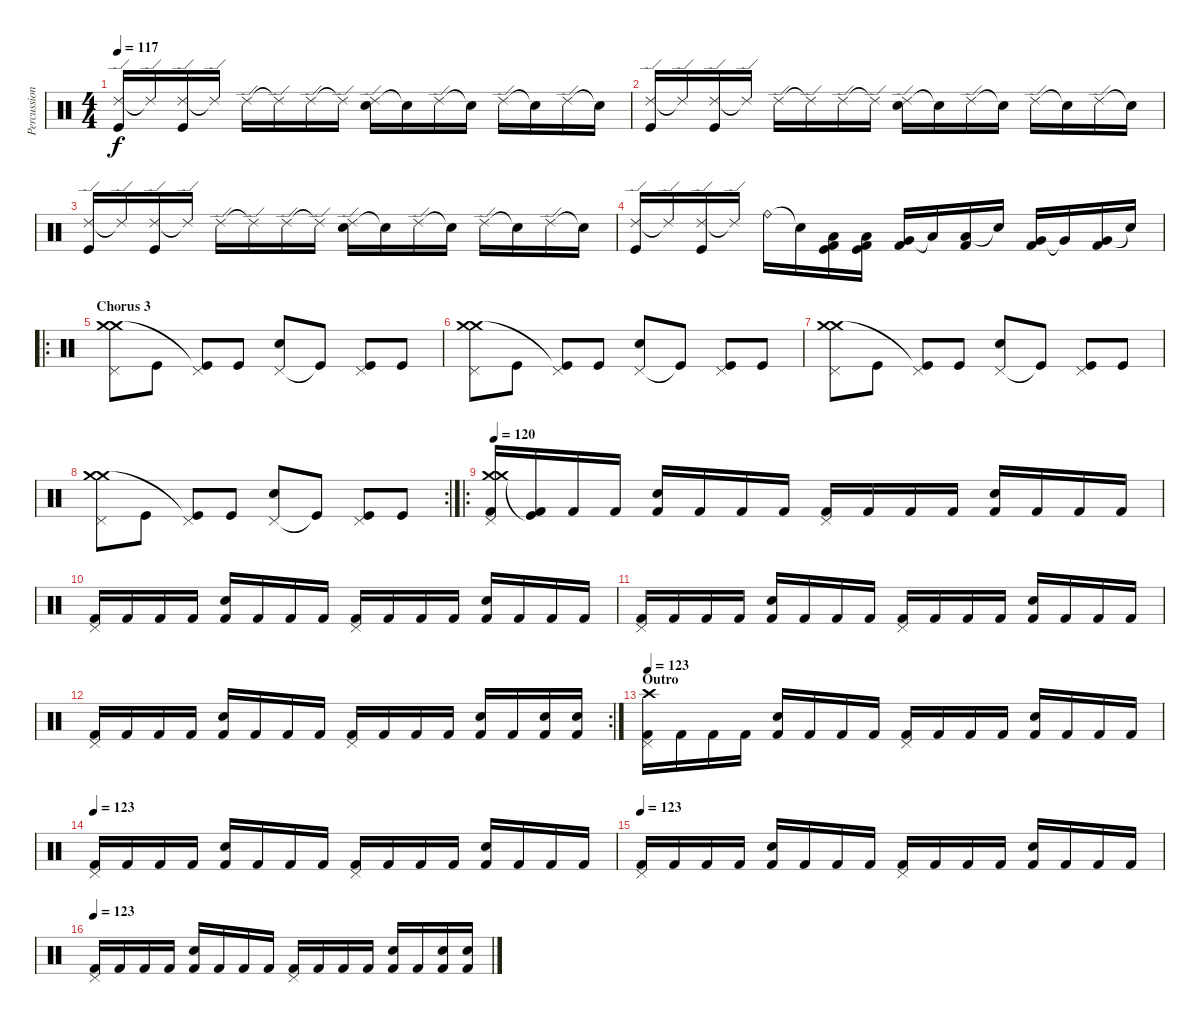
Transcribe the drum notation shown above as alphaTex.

\track ("Percussions" "Percussion") {instrument percussion}
\staff {score}
\articulation defaults
\ts (4 4)
\tempo 117
\clef neutral
\ks c
("Ride (edge) 2" "Kick (hit)").16{dy f} "Ride (edge) 2"{t}.16 ("Ride (edge) 2" "Kick (hit)").16 "Ride (edge) 2"{t}.16 "Ride (edge) 2".16 "Ride (edge) 2"{t}.16 "Ride (edge) 2".16 "Ride (edge) 2"{t}.16 ("Ride (edge) 2" "Electric Snare (hit)").16 "Snare (hit)"{t}.16 "Ride (edge) 2".16 "Snare (hit)"{t}.16 "Ride (edge) 2".16 "Snare (hit)"{t}.16 "Ride (edge) 2".16 "Snare (hit)"{t}.16 |
("Ride (edge) 2" "Kick (hit)").16 "Ride (edge) 2"{t}.16 ("Ride (edge) 2" "Kick (hit)").16 "Ride (edge) 2"{t}.16 "Ride (edge) 2".16 "Ride (edge) 2"{t}.16 "Ride (edge) 2".16 "Ride (edge) 2"{t}.16 ("Ride (edge) 2" "Electric Snare (hit)").16 "Snare (hit)"{t}.16 "Ride (edge) 2".16 "Snare (hit)"{t}.16 "Ride (edge) 2".16 "Snare (hit)"{t}.16 "Ride (edge) 2".16 "Snare (hit)"{t}.16 |
("Ride (edge) 2" "Kick (hit)").16 "Ride (edge) 2"{t}.16 ("Ride (edge) 2" "Kick (hit)").16 "Ride (edge) 2"{t}.16 "Ride (edge) 2".16 "Ride (edge) 2"{t}.16 "Ride (edge) 2".16 "Ride (edge) 2"{t}.16 ("Ride (edge) 2" "Electric Snare (hit)").16 "Snare (hit)"{t}.16 "Ride (edge) 2".16 "Snare (hit)"{t}.16 "Ride (edge) 2".16 "Snare (hit)"{t}.16 "Ride (edge) 2".16 "Snare (hit)"{t}.16 |
("Ride (edge) 2" "Kick (hit)").16 "Ride (edge) 2"{t}.16 ("Ride (edge) 2" "Kick (hit)").16 "Ride (edge) 2"{t}.16 "Ride (bell)".16 "Snare (hit)"{t}.16 ("Low Floor Tom (hit)" "Kick (hit) 2" "Kick (hit)").16 ("Low Floor Tom (hit)" "Kick (hit) 2" "Kick (hit)").16 ("Very Low Tom (hit)" "Kick (hit) 2").16 "Low Tom (hit)"{t}.16 ("Low Tom (hit)" "Kick (hit) 2").16 "Snare (hit)"{t}.16 ("Very Low Tom (hit)" "Kick (hit) 2").16 "Very Low Tom (hit)"{t}.16 ("Very Low Tom (hit)" "Kick (hit) 2").16 "Snare (hit)"{t}.16 |
\ro
\section ("" "Chorus 3")
("Crash medium (hit)" "Crash medium (hit)" "Pedal Hi-Hat (hit)").8 "Kick (hit)".8 ("Pedal Hi-Hat (hit)" "Kick (hit)"{t}).8 "Kick (hit)".8 ("Pedal Hi-Hat (hit)" "Electric Snare (hit)").8 "Kick (hit)"{t}.8 ("Pedal Hi-Hat (hit)" "Kick (hit)").8 "Kick (hit)".8 |
("Crash medium (hit)" "Crash medium (hit)" "Pedal Hi-Hat (hit)").8 "Kick (hit)".8 ("Pedal Hi-Hat (hit)" "Kick (hit)"{t}).8 "Kick (hit)".8 ("Pedal Hi-Hat (hit)" "Electric Snare (hit)").8 "Kick (hit)"{t}.8 ("Pedal Hi-Hat (hit)" "Kick (hit)").8 "Kick (hit)".8 |
("Crash medium (hit)" "Crash medium (hit)" "Pedal Hi-Hat (hit)").8 "Kick (hit)".8 ("Pedal Hi-Hat (hit)" "Kick (hit)"{t}).8 "Kick (hit)".8 ("Pedal Hi-Hat (hit)" "Electric Snare (hit)").8 "Kick (hit)"{t}.8 ("Pedal Hi-Hat (hit)" "Kick (hit)").8 "Kick (hit)".8 |
\rc 2
("Crash medium (hit)" "Crash medium (hit)" "Pedal Hi-Hat (hit)").8 "Kick (hit)".8 ("Pedal Hi-Hat (hit)" "Kick (hit)"{t}).8 "Kick (hit)".8 ("Pedal Hi-Hat (hit)" "Electric Snare (hit)").8 "Kick (hit)"{t}.8 ("Pedal Hi-Hat (hit)" "Kick (hit)").8 "Kick (hit)".8 |
\ro
\tempo 120
("Crash medium (hit)" "Crash medium (hit)" "Pedal Hi-Hat (hit)" "Kick (hit) 2").16 ("Kick (hit)"{t} "Kick (hit) 2").16 "Kick (hit) 2".16 "Kick (hit) 2".16 ("Electric Snare (hit)" "Kick (hit) 2").16 "Kick (hit) 2".16 "Kick (hit) 2".16 "Kick (hit) 2".16 ("Pedal Hi-Hat (hit)" "Kick (hit) 2").16 "Kick (hit) 2".16 "Kick (hit) 2".16 "Kick (hit) 2".16 ("Electric Snare (hit)" "Kick (hit) 2").16 "Kick (hit) 2".16 "Kick (hit) 2".16 "Kick (hit) 2".16 |
("Pedal Hi-Hat (hit)" "Kick (hit) 2").16 "Kick (hit) 2".16 "Kick (hit) 2".16 "Kick (hit) 2".16 ("Electric Snare (hit)" "Kick (hit) 2").16 "Kick (hit) 2".16 "Kick (hit) 2".16 "Kick (hit) 2".16 ("Pedal Hi-Hat (hit)" "Kick (hit) 2").16 "Kick (hit) 2".16 "Kick (hit) 2".16 "Kick (hit) 2".16 ("Electric Snare (hit)" "Kick (hit) 2").16 "Kick (hit) 2".16 "Kick (hit) 2".16 "Kick (hit) 2".16 |
("Pedal Hi-Hat (hit)" "Kick (hit) 2").16 "Kick (hit) 2".16 "Kick (hit) 2".16 "Kick (hit) 2".16 ("Electric Snare (hit)" "Kick (hit) 2").16 "Kick (hit) 2".16 "Kick (hit) 2".16 "Kick (hit) 2".16 ("Pedal Hi-Hat (hit)" "Kick (hit) 2").16 "Kick (hit) 2".16 "Kick (hit) 2".16 "Kick (hit) 2".16 ("Electric Snare (hit)" "Kick (hit) 2").16 "Kick (hit) 2".16 "Kick (hit) 2".16 "Kick (hit) 2".16 |
\rc 2
("Pedal Hi-Hat (hit)" "Kick (hit) 2").16 "Kick (hit) 2".16 "Kick (hit) 2".16 "Kick (hit) 2".16 ("Electric Snare (hit)" "Kick (hit) 2").16 "Kick (hit) 2".16 "Kick (hit) 2".16 "Kick (hit) 2".16 ("Pedal Hi-Hat (hit)" "Kick (hit) 2").16 "Kick (hit) 2".16 "Kick (hit) 2".16 "Kick (hit) 2".16 ("Electric Snare (hit)" "Kick (hit) 2").16 "Kick (hit) 2".16 ("Electric Snare (hit)" "Kick (hit) 2").16 ("Electric Snare (hit)" "Kick (hit) 2").16 |
\section ("" "Outro")
\tempo 123
("Crash high (hit)" "Pedal Hi-Hat (hit)" "Kick (hit) 2").16 "Kick (hit) 2".16 "Kick (hit) 2".16 "Kick (hit) 2".16 ("Electric Snare (hit)" "Kick (hit) 2").16 "Kick (hit) 2".16 "Kick (hit) 2".16 "Kick (hit) 2".16 ("Pedal Hi-Hat (hit)" "Kick (hit) 2").16 "Kick (hit) 2".16 "Kick (hit) 2".16 "Kick (hit) 2".16 ("Electric Snare (hit)" "Kick (hit) 2").16 "Kick (hit) 2".16 "Kick (hit) 2".16 "Kick (hit) 2".16 |
\tempo 123
("Pedal Hi-Hat (hit)" "Kick (hit) 2").16 "Kick (hit) 2".16 "Kick (hit) 2".16 "Kick (hit) 2".16 ("Electric Snare (hit)" "Kick (hit) 2").16 "Kick (hit) 2".16 "Kick (hit) 2".16 "Kick (hit) 2".16 ("Pedal Hi-Hat (hit)" "Kick (hit) 2").16 "Kick (hit) 2".16 "Kick (hit) 2".16 "Kick (hit) 2".16 ("Electric Snare (hit)" "Kick (hit) 2").16 "Kick (hit) 2".16 "Kick (hit) 2".16 "Kick (hit) 2".16 |
\tempo 123
("Pedal Hi-Hat (hit)" "Kick (hit) 2").16 "Kick (hit) 2".16 "Kick (hit) 2".16 "Kick (hit) 2".16 ("Electric Snare (hit)" "Kick (hit) 2").16 "Kick (hit) 2".16 "Kick (hit) 2".16 "Kick (hit) 2".16 ("Pedal Hi-Hat (hit)" "Kick (hit) 2").16 "Kick (hit) 2".16 "Kick (hit) 2".16 "Kick (hit) 2".16 ("Electric Snare (hit)" "Kick (hit) 2").16 "Kick (hit) 2".16 "Kick (hit) 2".16 "Kick (hit) 2".16 |
\tempo 123
("Pedal Hi-Hat (hit)" "Kick (hit) 2").16 "Kick (hit) 2".16 "Kick (hit) 2".16 "Kick (hit) 2".16 ("Electric Snare (hit)" "Kick (hit) 2").16 "Kick (hit) 2".16 "Kick (hit) 2".16 "Kick (hit) 2".16 ("Pedal Hi-Hat (hit)" "Kick (hit) 2").16 "Kick (hit) 2".16 "Kick (hit) 2".16 "Kick (hit) 2".16 ("Electric Snare (hit)" "Kick (hit) 2").16 "Kick (hit) 2".16 ("Electric Snare (hit)" "Kick (hit) 2").16 ("Electric Snare (hit)" "Kick (hit) 2").16
